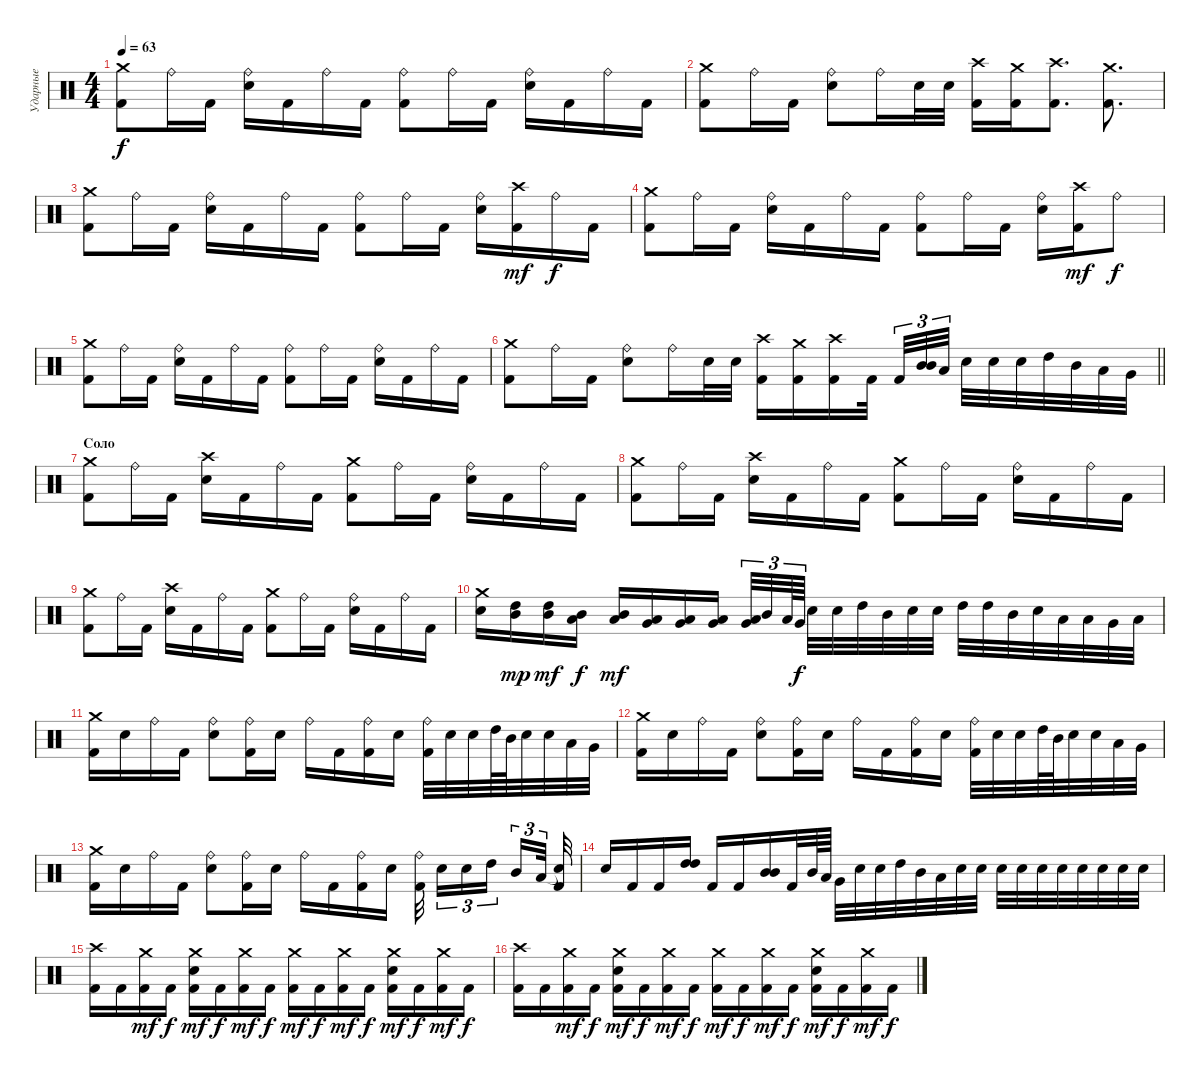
\track ("Ударные" "Ударные") {instrument percussion}
\staff {score}
\articulation defaults
\ts (4 4)
\tempo 63
\clef neutral
\ks c
("Crash medium (hit)" "Kick (hit) 2").8{dy f} "Ride (bell)".16 "Kick (hit) 2".16 ("Ride (bell)" "Snare (hit) 2").16 "Kick (hit) 2".16 "Ride (bell)".16 "Kick (hit) 2".16 ("Ride (bell)" "Kick (hit) 2").8 "Ride (bell)".16 "Kick (hit) 2".16 ("Ride (bell)" "Snare (hit) 2").16 "Kick (hit) 2".16 "Ride (bell)".16 "Kick (hit) 2".16 |
("Crash medium (hit)" "Kick (hit) 2").8 "Ride (bell)".16 "Kick (hit) 2".16 ("Ride (bell)" "Snare (hit) 2").8 "Ride (bell)".16 "Snare (hit) 2".32 "Snare (hit) 2".32 ("Crash high (hit)" "Kick (hit) 2").16 ("Crash medium (hit)" "Kick (hit) 2").16 ("Crash high (hit)" "Kick (hit) 2").8{d} ("Crash medium (hit)" "Kick (hit) 2").8{d} |
("Crash medium (hit)" "Kick (hit) 2").8 "Ride (bell)".16 "Kick (hit) 2".16 ("Ride (bell)" "Snare (hit) 2").16 "Kick (hit) 2".16 "Ride (bell)".16 "Kick (hit) 2".16 ("Ride (bell)" "Kick (hit) 2").8 "Ride (bell)".16 "Kick (hit) 2".16 ("Ride (bell)" "Snare (hit) 2").16 ("Crash high (hit)" "Kick (hit) 2").16{dy mf} "Ride (bell)".16{dy f} "Kick (hit) 2".16 |
("Crash medium (hit)" "Kick (hit) 2").8 "Ride (bell)".16 "Kick (hit) 2".16 ("Ride (bell)" "Snare (hit) 2").16 "Kick (hit) 2".16 "Ride (bell)".16 "Kick (hit) 2".16 ("Ride (bell)" "Kick (hit) 2").8 "Ride (bell)".16 "Kick (hit) 2".16 ("Ride (bell)" "Snare (hit) 2").16 ("Crash high (hit)" "Kick (hit) 2").16{dy mf} "Ride (bell)".8{dy f} |
("Crash medium (hit)" "Kick (hit) 2").8 "Ride (bell)".16 "Kick (hit) 2".16 ("Ride (bell)" "Snare (hit) 2").16 "Kick (hit) 2".16 "Ride (bell)".16 "Kick (hit) 2".16 ("Ride (bell)" "Kick (hit) 2").8 "Ride (bell)".16 "Kick (hit) 2".16 ("Ride (bell)" "Snare (hit) 2").16 "Kick (hit) 2".16 "Ride (bell)".16 "Kick (hit) 2".16 |
\barLineRight lightlight
("Crash medium (hit)" "Kick (hit) 2").8 "Ride (bell)".16 "Kick (hit) 2".16 ("Ride (bell)" "Snare (hit) 2").8 "Ride (bell)".16 "Snare (hit) 2".32 "Snare (hit) 2".32 ("Crash high (hit)" "Kick (hit) 2").16 ("Crash medium (hit)" "Kick (hit) 2").16 ("Crash high (hit)" "Kick (hit) 2").16 "Kick (hit) 2".32{beam splitsecondary} "Kick (hit) 2".32{tu (3 2)} ("Mid Tom (hit)" "Mid Tom (hit)").32{tu (3 2) bd 60} "Low Tom (hit)".32{tu (3 2) beam splitsecondary} "Snare (hit) 2".32 "Snare (hit) 2".32 "Snare (hit) 2".32 "High Tom (hit)".32 "Mid Tom (hit)".32 "Low Tom (hit)".32 "Very Low Tom (hit)".32 |
\section ("" "Соло")
("Crash medium (hit)" "Kick (hit) 2").8 "Ride (bell)".16 "Kick (hit) 2".16 ("Crash high (hit)" "Snare (hit) 2").16 "Kick (hit) 2".16 "Ride (bell)".16 "Kick (hit) 2".16 ("Crash medium (hit)" "Kick (hit) 2").8 "Ride (bell)".16 "Kick (hit) 2".16 ("Ride (bell)" "Snare (hit) 2").16 "Kick (hit) 2".16 "Ride (bell)".16 "Kick (hit) 2".16 |
("Crash medium (hit)" "Kick (hit) 2").8 "Ride (bell)".16 "Kick (hit) 2".16 ("Crash high (hit)" "Snare (hit) 2").16 "Kick (hit) 2".16 "Ride (bell)".16 "Kick (hit) 2".16 ("Crash medium (hit)" "Kick (hit) 2").8 "Ride (bell)".16 "Kick (hit) 2".16 ("Ride (bell)" "Snare (hit) 2").16 "Kick (hit) 2".16 "Ride (bell)".16 "Kick (hit) 2".16 |
("Crash medium (hit)" "Kick (hit) 2").8 "Ride (bell)".16 "Kick (hit) 2".16 ("Crash high (hit)" "Snare (hit) 2").16 "Kick (hit) 2".16 "Ride (bell)".16 "Kick (hit) 2".16 ("Crash medium (hit)" "Kick (hit) 2").8 "Ride (bell)".16 "Kick (hit) 2".16 ("Ride (bell)" "Snare (hit) 2").16 "Kick (hit) 2".16 "Ride (bell)".16 "Kick (hit) 2".16 |
("Crash medium (hit)" "Snare (hit) 2").16 ("High Tom (hit)" "Mid Tom (hit)").16{dy mp} ("High Tom (hit)" "Mid Tom (hit)").16{dy mf} ("Mid Tom (hit)" "Low Tom (hit)").16{dy f} ("Mid Tom (hit)" "Low Tom (hit)").16{dy mf} ("Low Tom (hit)" "Very Low Tom (hit)").16 ("Low Tom (hit)" "Very Low Tom (hit)").16 ("Very Low Tom (hit)" "Low Floor Tom (hit)").16 ("Very Low Tom (hit)" "Low Floor Tom (hit)").32{tu (3 2)} "Mid Tom (hit)".32{tu (3 2)} "Low Tom (hit)".64{tu (3 2)} "Very Low Tom (hit)".64{tu (3 2) dy f beam splitsecondary} "Snare (hit) 2".32 "Snare (hit) 2".32 "High Tom (hit)".32 "Mid Tom (hit)".32 "Snare (hit) 2".32 "Snare (hit) 2".32 "High Tom (hit)".32 "High Tom (hit)".32 "Mid Tom (hit)".32 "Snare (hit) 2".32 "Low Tom (hit)".32 "Low Tom (hit)".32 "Very Low Tom (hit)".32 "Low Floor Tom (hit)".32 |
("Crash medium (hit)" "Kick (hit) 2").16 "Snare (hit) 2".16 "Ride (bell)".16 "Kick (hit) 2".16 ("Ride (bell)" "Snare (hit) 2").8 ("Ride (bell)" "Kick (hit) 2").16 "Snare (hit) 2".16 "Ride (bell)".16 "Kick (hit) 2".16 ("Ride (bell)" "Kick (hit) 2").16 "Snare (hit) 2".16 ("Ride (bell)" "Kick (hit) 2").32 "Snare (hit) 2".32 "Snare (hit) 2".32 "High Tom (hit)".64 "Mid Tom (hit)".64 "Snare (hit) 2".32 "Snare (hit) 2".32 "Low Tom (hit)".32 "Very Low Tom (hit)".32 |
("Crash medium (hit)" "Kick (hit) 2").16 "Snare (hit) 2".16 "Ride (bell)".16 "Kick (hit) 2".16 ("Ride (bell)" "Snare (hit) 2").8 ("Ride (bell)" "Kick (hit) 2").16 "Snare (hit) 2".16 "Ride (bell)".16 "Kick (hit) 2".16 ("Ride (bell)" "Kick (hit) 2").16 "Snare (hit) 2".16 ("Ride (bell)" "Kick (hit) 2").32 "Snare (hit) 2".32 "Snare (hit) 2".32 "High Tom (hit)".64 "Mid Tom (hit)".64 "Snare (hit) 2".32 "Snare (hit) 2".32 "Low Tom (hit)".32 "Very Low Tom (hit)".32 |
("Crash medium (hit)" "Kick (hit) 2").16 "Snare (hit) 2".16 "Ride (bell)".16 "Kick (hit) 2".16 ("Ride (bell)" "Snare (hit) 2").8 ("Ride (bell)" "Kick (hit) 2").16 "Snare (hit) 2".16 "Ride (bell)".16 "Kick (hit) 2".16 ("Ride (bell)" "Kick (hit) 2").16 "Snare (hit) 2".16 ("Ride (bell)" "Kick (hit) 2").32{beam splitsecondary} "Snare (hit) 2".16{tu (3 2)} "Snare (hit) 2".16{tu (3 2)} "High Tom (hit)".16{tu (3 2) beam splitsecondary} "Mid Tom (hit)".16{tu (3 2)} "Low Tom (hit)".32{tu (3 2)} ("Snare (hit) 2"{t} "Kick (hit) 2").32 |
"Snare (hit) 2".16 "Kick (hit) 2".16 "Kick (hit) 2".16 ("High Tom (hit)" "High Tom (hit)").16{bu 60} "Kick (hit) 2".16 "Kick (hit) 2".16 ("Mid Tom (hit)" "Mid Tom (hit)").16{bd 60} "Kick (hit) 2".32 "Mid Tom (hit)".64 "Low Tom (hit)".64 "Very Low Tom (hit)".32 "Snare (hit) 2".32 "Snare (hit) 2".32 "High Tom (hit)".32 "Mid Tom (hit)".32 "Low Tom (hit)".32 "Snare (hit) 2".32 "Snare (hit) 2".32 "Snare (hit) 2".32 "Snare (hit) 2".32 "Snare (hit) 2".32 "Snare (hit) 2".32 "Snare (hit) 2".32 "Snare (hit) 2".32 "Snare (hit) 2".32 "Snare (hit) 2".32 |
("Crash high (hit)" "Kick (hit) 2").16 "Kick (hit) 2".16 ("Crash medium (hit)" "Kick (hit) 2").16{dy mf} "Kick (hit) 2".16{dy f} ("Crash medium (hit)" "Snare (hit) 2" "Kick (hit) 2").16{dy mf} "Kick (hit) 2".16{dy f} ("Crash medium (hit)" "Kick (hit) 2").16{dy mf} "Kick (hit) 2".16{dy f} ("Crash medium (hit)" "Kick (hit) 2").16{dy mf} "Kick (hit) 2".16{dy f} ("Crash medium (hit)" "Kick (hit) 2").16{dy mf} "Kick (hit) 2".16{dy f} ("Crash medium (hit)" "Snare (hit) 2" "Kick (hit) 2").16{dy mf} "Kick (hit) 2".16{dy f} ("Crash medium (hit)" "Kick (hit) 2").16{dy mf} "Kick (hit) 2".16{dy f} |
("Crash high (hit)" "Kick (hit) 2").16 "Kick (hit) 2".16 ("Crash medium (hit)" "Kick (hit) 2").16{dy mf} "Kick (hit) 2".16{dy f} ("Crash medium (hit)" "Snare (hit) 2" "Kick (hit) 2").16{dy mf} "Kick (hit) 2".16{dy f} ("Crash medium (hit)" "Kick (hit) 2").16{dy mf} "Kick (hit) 2".16{dy f} ("Crash medium (hit)" "Kick (hit) 2").16{dy mf} "Kick (hit) 2".16{dy f} ("Crash medium (hit)" "Kick (hit) 2").16{dy mf} "Kick (hit) 2".16{dy f} ("Crash medium (hit)" "Snare (hit) 2" "Kick (hit) 2").16{dy mf} "Kick (hit) 2".16{dy f} ("Crash medium (hit)" "Kick (hit) 2").16{dy mf} "Kick (hit) 2".16{dy f}
